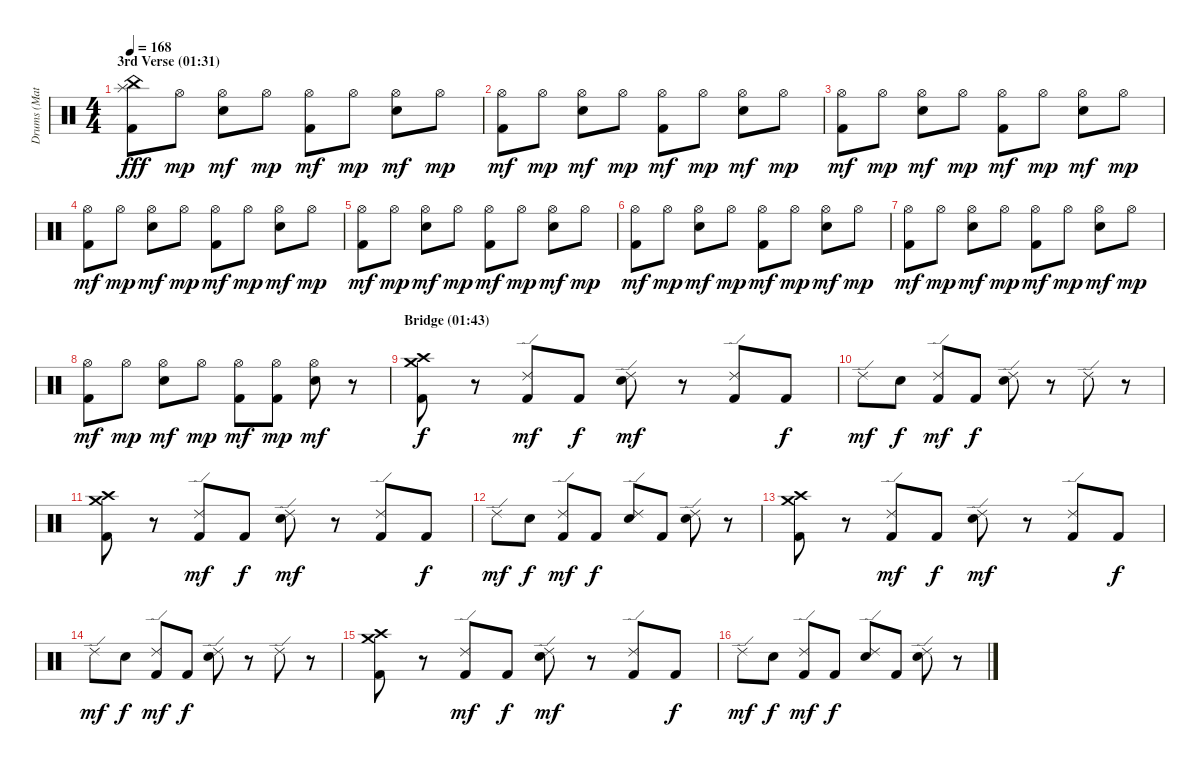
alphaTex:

\track ("Drums (Matt Sorum)" "Drums (Mat") {instrument percussion}
\staff {score}
\articulation defaults
\ts (4 4)
\section ("" "3rd Verse (01:31)")
\tempo 168
\clef neutral
\ks c
("China (hit)" "Splash (hit)" "Kick (hit) 2").8{dy fff} "Hi-Hat (open)".8{dy mp} ("Hi-Hat (open)" "Electric Snare (hit)").8{dy mf} "Hi-Hat (open)".8{dy mp} ("Hi-Hat (open)" "Kick (hit) 2").8{dy mf} "Hi-Hat (open)".8{dy mp} ("Hi-Hat (open)" "Electric Snare (hit)").8{dy mf} "Hi-Hat (open)".8{dy mp} |
("Hi-Hat (open)" "Kick (hit) 2").8{dy mf} "Hi-Hat (open)".8{dy mp} ("Hi-Hat (open)" "Electric Snare (hit)").8{dy mf} "Hi-Hat (open)".8{dy mp} ("Hi-Hat (open)" "Kick (hit) 2").8{dy mf} "Hi-Hat (open)".8{dy mp} ("Hi-Hat (open)" "Electric Snare (hit)").8{dy mf} "Hi-Hat (open)".8{dy mp} |
("Hi-Hat (open)" "Kick (hit) 2").8{dy mf} "Hi-Hat (open)".8{dy mp} ("Hi-Hat (open)" "Electric Snare (hit)").8{dy mf} "Hi-Hat (open)".8{dy mp} ("Hi-Hat (open)" "Kick (hit) 2").8{dy mf} "Hi-Hat (open)".8{dy mp} ("Hi-Hat (open)" "Electric Snare (hit)").8{dy mf} "Hi-Hat (open)".8{dy mp} |
("Hi-Hat (open)" "Kick (hit) 2").8{dy mf} "Hi-Hat (open)".8{dy mp} ("Hi-Hat (open)" "Electric Snare (hit)").8{dy mf} "Hi-Hat (open)".8{dy mp} ("Hi-Hat (open)" "Kick (hit) 2").8{dy mf} "Hi-Hat (open)".8{dy mp} ("Hi-Hat (open)" "Electric Snare (hit)").8{dy mf} "Hi-Hat (open)".8{dy mp} |
("Hi-Hat (open)" "Kick (hit) 2").8{dy mf} "Hi-Hat (open)".8{dy mp} ("Hi-Hat (open)" "Electric Snare (hit)").8{dy mf} "Hi-Hat (open)".8{dy mp} ("Hi-Hat (open)" "Kick (hit) 2").8{dy mf} "Hi-Hat (open)".8{dy mp} ("Hi-Hat (open)" "Electric Snare (hit)").8{dy mf} "Hi-Hat (open)".8{dy mp} |
("Hi-Hat (open)" "Kick (hit) 2").8{dy mf} "Hi-Hat (open)".8{dy mp} ("Hi-Hat (open)" "Electric Snare (hit)").8{dy mf} "Hi-Hat (open)".8{dy mp} ("Hi-Hat (open)" "Kick (hit) 2").8{dy mf} "Hi-Hat (open)".8{dy mp} ("Hi-Hat (open)" "Electric Snare (hit)").8{dy mf} "Hi-Hat (open)".8{dy mp} |
("Hi-Hat (open)" "Kick (hit) 2").8{dy mf} "Hi-Hat (open)".8{dy mp} ("Hi-Hat (open)" "Electric Snare (hit)").8{dy mf} "Hi-Hat (open)".8{dy mp} ("Hi-Hat (open)" "Kick (hit) 2").8{dy mf} "Hi-Hat (open)".8{dy mp} ("Hi-Hat (open)" "Electric Snare (hit)").8{dy mf} "Hi-Hat (open)".8{dy mp} |
("Hi-Hat (open)" "Kick (hit) 2").8{dy mf} "Hi-Hat (open)".8{dy mp} ("Hi-Hat (open)" "Electric Snare (hit)").8{dy mf} "Hi-Hat (open)".8{dy mp} ("Hi-Hat (open)" "Kick (hit) 2").8{dy mf} ("Hi-Hat (open)" "Kick (hit) 2").8{dy mp} ("Hi-Hat (open)" "Electric Snare (hit)").8{dy mf} r.8 |
\section ("" "Bridge (01:43)")
("Crash high (hit)" "Crash medium (hit)" "Kick (hit) 2").8{dy f} r.8 ("Ride (edge) 2" "Kick (hit) 2").8{dy mf} "Kick (hit) 2".8{dy f} ("Ride (edge) 2" "Electric Snare (hit)").8{dy mf} r.8 ("Ride (edge) 2" "Kick (hit) 2").8 "Kick (hit) 2".8{dy f} |
"Ride (edge) 2".8{dy mf} "Electric Snare (hit)".8{dy f} ("Ride (edge) 2" "Kick (hit) 2").8{dy mf} "Kick (hit) 2".8{dy f} ("Ride (edge) 2" "Electric Snare (hit)").8 r.8 "Ride (edge) 2".8 r.8 |
("Crash high (hit)" "Crash medium (hit)" "Kick (hit) 2").8 r.8 ("Ride (edge) 2" "Kick (hit) 2").8{dy mf} "Kick (hit) 2".8{dy f} ("Ride (edge) 2" "Electric Snare (hit)").8{dy mf} r.8 ("Ride (edge) 2" "Kick (hit) 2").8 "Kick (hit) 2".8{dy f} |
"Ride (edge) 2".8{dy mf} "Electric Snare (hit)".8{dy f} ("Ride (edge) 2" "Kick (hit) 2").8{dy mf} "Kick (hit) 2".8{dy f} ("Ride (edge) 2" "Electric Snare (hit)").8 "Kick (hit) 2".8 ("Ride (edge) 2" "Electric Snare (hit)").8 r.8 |
("Crash high (hit)" "Crash medium (hit)" "Kick (hit) 2").8 r.8 ("Ride (edge) 2" "Kick (hit) 2").8{dy mf} "Kick (hit) 2".8{dy f} ("Ride (edge) 2" "Electric Snare (hit)").8{dy mf} r.8 ("Ride (edge) 2" "Kick (hit) 2").8 "Kick (hit) 2".8{dy f} |
"Ride (edge) 2".8{dy mf} "Electric Snare (hit)".8{dy f} ("Ride (edge) 2" "Kick (hit) 2").8{dy mf} "Kick (hit) 2".8{dy f} ("Ride (edge) 2" "Electric Snare (hit)").8 r.8 "Ride (edge) 2".8 r.8 |
("Crash high (hit)" "Crash medium (hit)" "Kick (hit) 2").8 r.8 ("Ride (edge) 2" "Kick (hit) 2").8{dy mf} "Kick (hit) 2".8{dy f} ("Ride (edge) 2" "Electric Snare (hit)").8{dy mf} r.8 ("Ride (edge) 2" "Kick (hit) 2").8 "Kick (hit) 2".8{dy f} |
"Ride (edge) 2".8{dy mf} "Electric Snare (hit)".8{dy f} ("Ride (edge) 2" "Kick (hit) 2").8{dy mf} "Kick (hit) 2".8{dy f} ("Ride (edge) 2" "Electric Snare (hit)").8 "Kick (hit) 2".8 ("Ride (edge) 2" "Electric Snare (hit)").8 r.8
